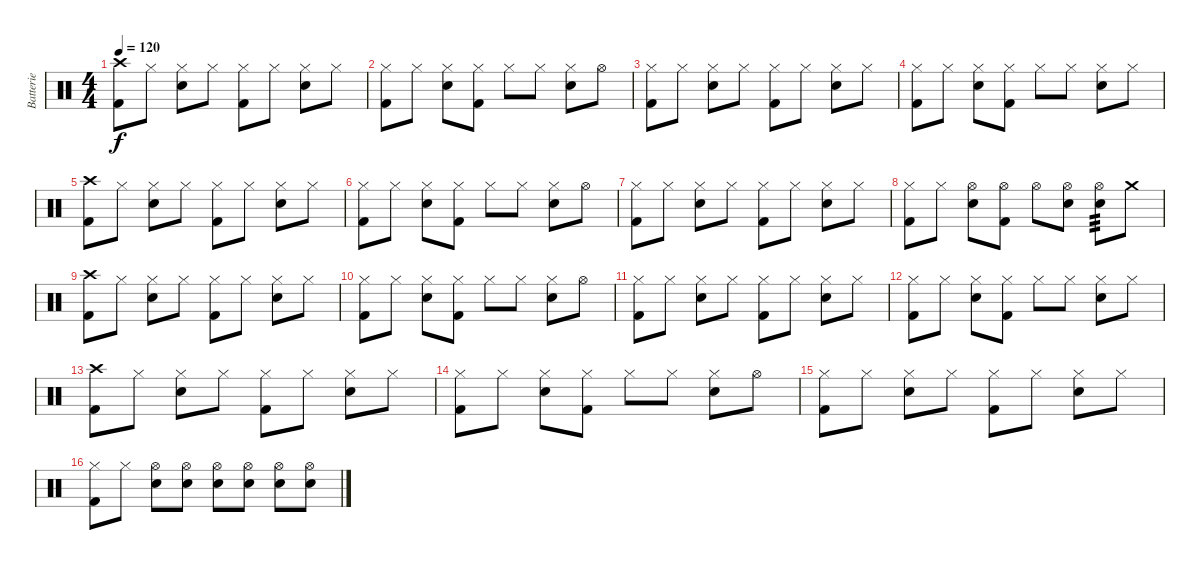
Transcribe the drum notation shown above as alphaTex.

\track ("Batterie" "Batterie") {instrument percussion}
\staff {score}
\articulation defaults
\ts (4 4)
\tempo 120
\clef neutral
\ks c
("Crash high (hit)" "Kick (hit) 2").8{dy f} "Hi-Hat (closed)".8 ("Hi-Hat (closed)" "Electric Snare (hit)").8 "Hi-Hat (closed)".8 ("Hi-Hat (closed)" "Kick (hit) 2").8 "Hi-Hat (closed)".8 ("Hi-Hat (closed)" "Electric Snare (hit)").8 "Hi-Hat (closed)".8 |
("Hi-Hat (closed)" "Kick (hit) 2").8 "Hi-Hat (closed)".8 ("Hi-Hat (closed)" "Electric Snare (hit)").8 ("Hi-Hat (closed)" "Kick (hit) 2").8 "Hi-Hat (closed)".8 "Hi-Hat (closed)".8 ("Hi-Hat (closed)" "Electric Snare (hit)").8 "Hi-Hat (open)".8 |
("Hi-Hat (closed)" "Kick (hit) 2").8 "Hi-Hat (closed)".8 ("Hi-Hat (closed)" "Electric Snare (hit)").8 "Hi-Hat (closed)".8 ("Hi-Hat (closed)" "Kick (hit) 2").8 "Hi-Hat (closed)".8 ("Hi-Hat (closed)" "Electric Snare (hit)").8 "Hi-Hat (closed)".8 |
("Hi-Hat (closed)" "Kick (hit) 2").8 "Hi-Hat (closed)".8 ("Hi-Hat (closed)" "Electric Snare (hit)").8 ("Hi-Hat (closed)" "Kick (hit) 2").8 "Hi-Hat (closed)".8 "Hi-Hat (closed)".8 ("Hi-Hat (closed)" "Electric Snare (hit)").8 "Hi-Hat (closed)".8 |
("Crash high (hit)" "Kick (hit) 2").8 "Hi-Hat (closed)".8 ("Hi-Hat (closed)" "Electric Snare (hit)").8 "Hi-Hat (closed)".8 ("Hi-Hat (closed)" "Kick (hit) 2").8 "Hi-Hat (closed)".8 ("Hi-Hat (closed)" "Electric Snare (hit)").8 "Hi-Hat (closed)".8 |
("Hi-Hat (closed)" "Kick (hit) 2").8 "Hi-Hat (closed)".8 ("Hi-Hat (closed)" "Electric Snare (hit)").8 ("Hi-Hat (closed)" "Kick (hit) 2").8 "Hi-Hat (closed)".8 "Hi-Hat (closed)".8 ("Hi-Hat (closed)" "Electric Snare (hit)").8 "Hi-Hat (open)".8 |
("Hi-Hat (closed)" "Kick (hit) 2").8 "Hi-Hat (closed)".8 ("Hi-Hat (closed)" "Electric Snare (hit)").8 "Hi-Hat (closed)".8 ("Hi-Hat (closed)" "Kick (hit) 2").8 "Hi-Hat (closed)".8 ("Hi-Hat (closed)" "Electric Snare (hit)").8 "Hi-Hat (closed)".8 |
("Hi-Hat (closed)" "Kick (hit) 2").8 "Hi-Hat (closed)".8 ("Hi-Hat (open)" "Electric Snare (hit)").8 ("Hi-Hat (open)" "Kick (hit) 2").8 "Hi-Hat (open)".8 ("Hi-Hat (open)" "Electric Snare (hit)").8 ("Hi-Hat (open)" "Electric Snare (hit)").8{tp 3} "Crash medium (hit)".8 |
("Crash high (hit)" "Kick (hit) 2").8 "Hi-Hat (closed)".8 ("Hi-Hat (closed)" "Electric Snare (hit)").8 "Hi-Hat (closed)".8 ("Hi-Hat (closed)" "Kick (hit) 2").8 "Hi-Hat (closed)".8 ("Hi-Hat (closed)" "Electric Snare (hit)").8 "Hi-Hat (closed)".8 |
("Hi-Hat (closed)" "Kick (hit) 2").8 "Hi-Hat (closed)".8 ("Hi-Hat (closed)" "Electric Snare (hit)").8 ("Hi-Hat (closed)" "Kick (hit) 2").8 "Hi-Hat (closed)".8 "Hi-Hat (closed)".8 ("Hi-Hat (closed)" "Electric Snare (hit)").8 "Hi-Hat (open)".8 |
("Hi-Hat (closed)" "Kick (hit) 2").8 "Hi-Hat (closed)".8 ("Hi-Hat (closed)" "Electric Snare (hit)").8 "Hi-Hat (closed)".8 ("Hi-Hat (closed)" "Kick (hit) 2").8 "Hi-Hat (closed)".8 ("Hi-Hat (closed)" "Electric Snare (hit)").8 "Hi-Hat (closed)".8 |
("Hi-Hat (closed)" "Kick (hit) 2").8 "Hi-Hat (closed)".8 ("Hi-Hat (closed)" "Electric Snare (hit)").8 ("Hi-Hat (closed)" "Kick (hit) 2").8 "Hi-Hat (closed)".8 "Hi-Hat (closed)".8 ("Hi-Hat (closed)" "Electric Snare (hit)").8 "Hi-Hat (closed)".8 |
("Crash high (hit)" "Kick (hit) 2").8 "Hi-Hat (closed)".8 ("Hi-Hat (closed)" "Electric Snare (hit)").8 "Hi-Hat (closed)".8 ("Hi-Hat (closed)" "Kick (hit) 2").8 "Hi-Hat (closed)".8 ("Hi-Hat (closed)" "Electric Snare (hit)").8 "Hi-Hat (closed)".8 |
("Hi-Hat (closed)" "Kick (hit) 2").8 "Hi-Hat (closed)".8 ("Hi-Hat (closed)" "Electric Snare (hit)").8 ("Hi-Hat (closed)" "Kick (hit) 2").8 "Hi-Hat (closed)".8 "Hi-Hat (closed)".8 ("Hi-Hat (closed)" "Electric Snare (hit)").8 "Hi-Hat (open)".8 |
("Hi-Hat (closed)" "Kick (hit) 2").8 "Hi-Hat (closed)".8 ("Hi-Hat (closed)" "Electric Snare (hit)").8 "Hi-Hat (closed)".8 ("Hi-Hat (closed)" "Kick (hit) 2").8 "Hi-Hat (closed)".8 ("Hi-Hat (closed)" "Electric Snare (hit)").8 "Hi-Hat (closed)".8 |
("Hi-Hat (closed)" "Kick (hit) 2").8 "Hi-Hat (closed)".8 ("Hi-Hat (open)" "Electric Snare (hit)").8 ("Hi-Hat (open)" "Electric Snare (hit)").8 ("Hi-Hat (open)" "Electric Snare (hit)").8 ("Hi-Hat (open)" "Electric Snare (hit)").8 ("Hi-Hat (open)" "Electric Snare (hit)").8 ("Hi-Hat (open)" "Electric Snare (hit)").8
